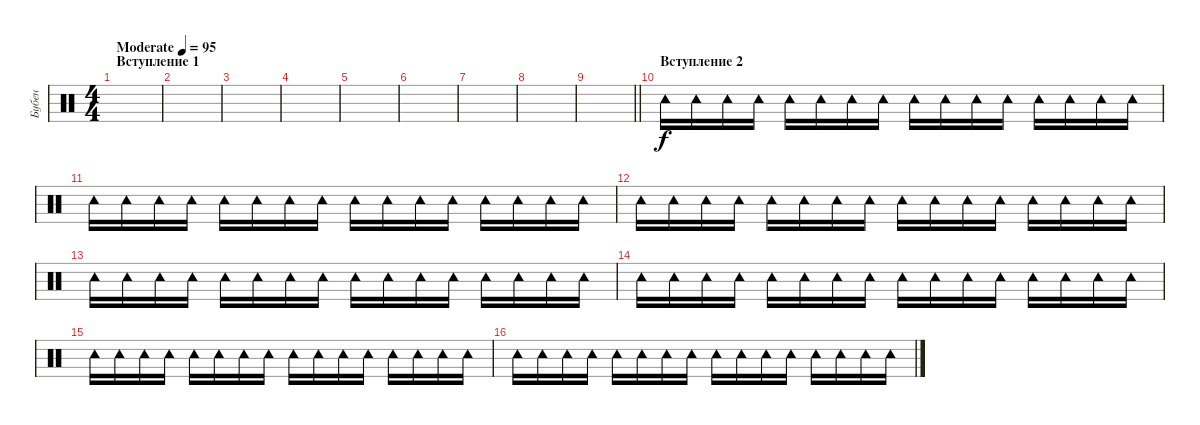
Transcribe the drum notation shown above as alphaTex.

\track ("Бубен" "Бубен") {instrument percussion}
\staff {score}
\articulation defaults
\ts (4 4)
\section ("" "Вступление 1")
\tempo (95 "Moderate")
\clef neutral
\ks c
|
|
|
|
|
|
|
|
\barLineRight lightlight
|
\section ("" "Вступление 2")
"Tambourine (hit)".16{volume 5} "Tambourine (hit)".16 "Tambourine (hit)".16 "Tambourine (hit)".16 "Tambourine (hit)".16 "Tambourine (hit)".16 "Tambourine (hit)".16 "Tambourine (hit)".16 "Tambourine (hit)".16 "Tambourine (hit)".16 "Tambourine (hit)".16 "Tambourine (hit)".16 "Tambourine (hit)".16 "Tambourine (hit)".16 "Tambourine (hit)".16 "Tambourine (hit)".16 |
"Tambourine (hit)".16 "Tambourine (hit)".16 "Tambourine (hit)".16 "Tambourine (hit)".16 "Tambourine (hit)".16 "Tambourine (hit)".16 "Tambourine (hit)".16 "Tambourine (hit)".16 "Tambourine (hit)".16 "Tambourine (hit)".16 "Tambourine (hit)".16 "Tambourine (hit)".16 "Tambourine (hit)".16 "Tambourine (hit)".16 "Tambourine (hit)".16 "Tambourine (hit)".16 |
"Tambourine (hit)".16 "Tambourine (hit)".16 "Tambourine (hit)".16 "Tambourine (hit)".16 "Tambourine (hit)".16 "Tambourine (hit)".16 "Tambourine (hit)".16 "Tambourine (hit)".16 "Tambourine (hit)".16 "Tambourine (hit)".16 "Tambourine (hit)".16 "Tambourine (hit)".16 "Tambourine (hit)".16 "Tambourine (hit)".16 "Tambourine (hit)".16 "Tambourine (hit)".16 |
"Tambourine (hit)".16 "Tambourine (hit)".16 "Tambourine (hit)".16 "Tambourine (hit)".16 "Tambourine (hit)".16 "Tambourine (hit)".16 "Tambourine (hit)".16 "Tambourine (hit)".16 "Tambourine (hit)".16 "Tambourine (hit)".16 "Tambourine (hit)".16 "Tambourine (hit)".16 "Tambourine (hit)".16 "Tambourine (hit)".16 "Tambourine (hit)".16 "Tambourine (hit)".16 |
"Tambourine (hit)".16 "Tambourine (hit)".16 "Tambourine (hit)".16 "Tambourine (hit)".16 "Tambourine (hit)".16 "Tambourine (hit)".16 "Tambourine (hit)".16 "Tambourine (hit)".16 "Tambourine (hit)".16 "Tambourine (hit)".16 "Tambourine (hit)".16 "Tambourine (hit)".16 "Tambourine (hit)".16 "Tambourine (hit)".16 "Tambourine (hit)".16 "Tambourine (hit)".16 |
"Tambourine (hit)".16 "Tambourine (hit)".16 "Tambourine (hit)".16 "Tambourine (hit)".16 "Tambourine (hit)".16 "Tambourine (hit)".16 "Tambourine (hit)".16 "Tambourine (hit)".16 "Tambourine (hit)".16 "Tambourine (hit)".16 "Tambourine (hit)".16 "Tambourine (hit)".16 "Tambourine (hit)".16 "Tambourine (hit)".16 "Tambourine (hit)".16 "Tambourine (hit)".16 |
"Tambourine (hit)".16 "Tambourine (hit)".16 "Tambourine (hit)".16 "Tambourine (hit)".16 "Tambourine (hit)".16 "Tambourine (hit)".16 "Tambourine (hit)".16 "Tambourine (hit)".16 "Tambourine (hit)".16 "Tambourine (hit)".16 "Tambourine (hit)".16 "Tambourine (hit)".16 "Tambourine (hit)".16 "Tambourine (hit)".16 "Tambourine (hit)".16 "Tambourine (hit)".16
